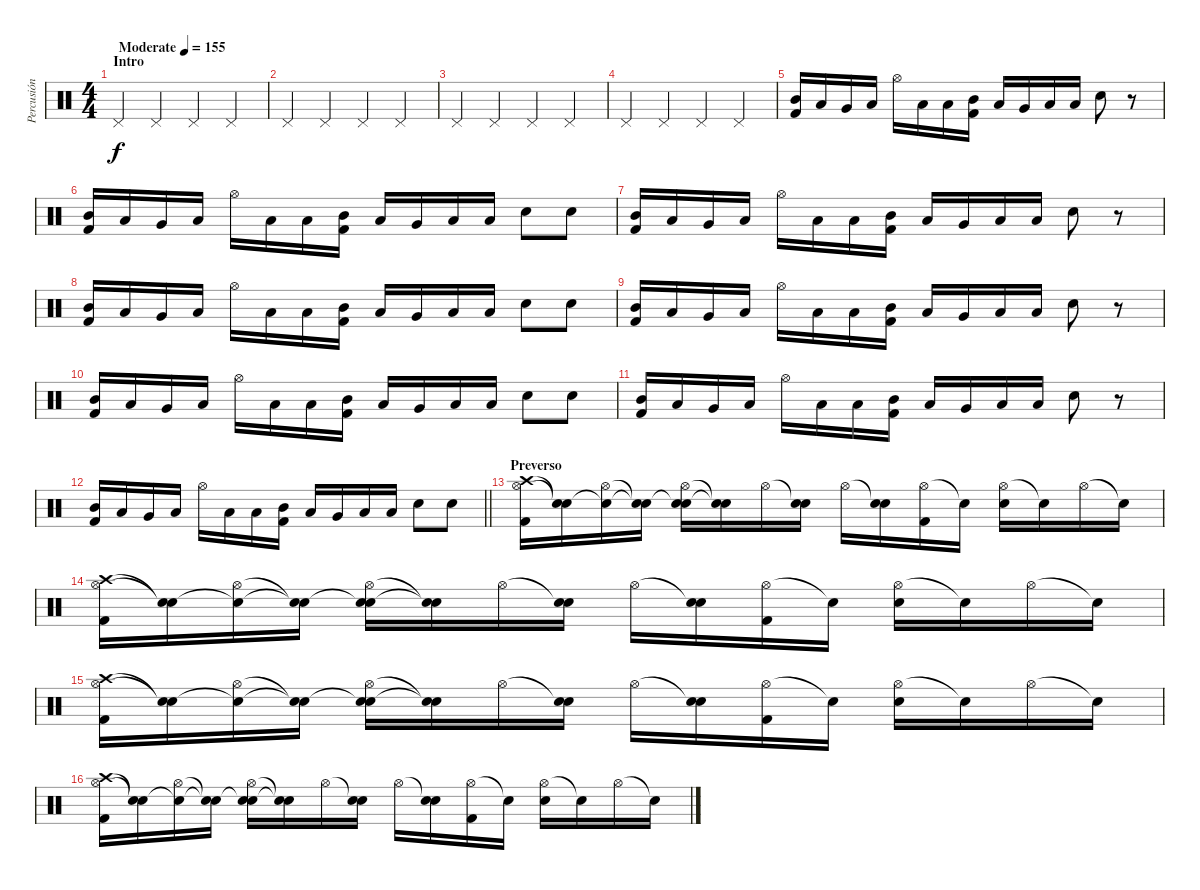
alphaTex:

\track ("Percusión (Erik)" "Percusión ") {instrument percussion}
\staff {score}
\articulation defaults
\ts (4 4)
\section ("" "Intro")
\tempo (155 "Moderate")
\clef neutral
\ks c "Pedal Hi-Hat (hit)".4{dy f} "Pedal Hi-Hat (hit)".4 "Pedal Hi-Hat (hit)".4 "Pedal Hi-Hat (hit)".4
|
"Pedal Hi-Hat (hit)".4 "Pedal Hi-Hat (hit)".4 "Pedal Hi-Hat (hit)".4 "Pedal Hi-Hat (hit)".4 |
"Pedal Hi-Hat (hit)".4 "Pedal Hi-Hat (hit)".4 "Pedal Hi-Hat (hit)".4 "Pedal Hi-Hat (hit)".4 |
"Pedal Hi-Hat (hit)".4 "Pedal Hi-Hat (hit)".4 "Pedal Hi-Hat (hit)".4 "Pedal Hi-Hat (hit)".4 |
("Mid Tom (hit)" "Kick (hit) 2").16 "Low Tom (hit)".16 "Very Low Tom (hit)".16 "Low Floor Tom (hit)".16 "Hi-Hat (open)".16 "Low Floor Tom (hit)".16 "Low Floor Tom (hit)".16 ("Mid Tom (hit)" "Kick (hit) 2").16 "Low Tom (hit)".16 "Very Low Tom (hit)".16 "Low Floor Tom (hit)".16 "Low Floor Tom (hit)".16 "Snare (hit) 2".8 r.8 |
("Mid Tom (hit)" "Kick (hit) 2").16 "Low Tom (hit)".16 "Very Low Tom (hit)".16 "Low Floor Tom (hit)".16 "Hi-Hat (open)".16 "Low Floor Tom (hit)".16 "Low Floor Tom (hit)".16 ("Mid Tom (hit)" "Kick (hit) 2").16 "Low Tom (hit)".16 "Very Low Tom (hit)".16 "Low Floor Tom (hit)".16 "Low Floor Tom (hit)".16 "Snare (hit) 2".8 "Snare (hit) 2".8 |
("Mid Tom (hit)" "Kick (hit) 2").16 "Low Tom (hit)".16 "Very Low Tom (hit)".16 "Low Floor Tom (hit)".16 "Hi-Hat (open)".16 "Low Floor Tom (hit)".16 "Low Floor Tom (hit)".16 ("Mid Tom (hit)" "Kick (hit) 2").16 "Low Tom (hit)".16 "Very Low Tom (hit)".16 "Low Floor Tom (hit)".16 "Low Floor Tom (hit)".16 "Snare (hit) 2".8 r.8 |
("Mid Tom (hit)" "Kick (hit) 2").16 "Low Tom (hit)".16 "Very Low Tom (hit)".16 "Low Floor Tom (hit)".16 "Hi-Hat (open)".16 "Low Floor Tom (hit)".16 "Low Floor Tom (hit)".16 ("Mid Tom (hit)" "Kick (hit) 2").16 "Low Tom (hit)".16 "Very Low Tom (hit)".16 "Low Floor Tom (hit)".16 "Low Floor Tom (hit)".16 "Snare (hit) 2".8 "Snare (hit) 2".8 |
("Mid Tom (hit)" "Kick (hit) 2").16 "Low Tom (hit)".16 "Very Low Tom (hit)".16 "Low Floor Tom (hit)".16 "Hi-Hat (open)".16 "Low Floor Tom (hit)".16 "Low Floor Tom (hit)".16 ("Mid Tom (hit)" "Kick (hit) 2").16 "Low Tom (hit)".16 "Very Low Tom (hit)".16 "Low Floor Tom (hit)".16 "Low Floor Tom (hit)".16 "Snare (hit) 2".8 r.8 |
("Mid Tom (hit)" "Kick (hit) 2").16 "Low Tom (hit)".16 "Very Low Tom (hit)".16 "Low Floor Tom (hit)".16 "Hi-Hat (open)".16 "Low Floor Tom (hit)".16 "Low Floor Tom (hit)".16 ("Mid Tom (hit)" "Kick (hit) 2").16 "Low Tom (hit)".16 "Very Low Tom (hit)".16 "Low Floor Tom (hit)".16 "Low Floor Tom (hit)".16 "Snare (hit) 2".8 "Snare (hit) 2".8 |
("Mid Tom (hit)" "Kick (hit) 2").16 "Low Tom (hit)".16 "Very Low Tom (hit)".16 "Low Floor Tom (hit)".16 "Hi-Hat (open)".16 "Low Floor Tom (hit)".16 "Low Floor Tom (hit)".16 ("Mid Tom (hit)" "Kick (hit) 2").16 "Low Tom (hit)".16 "Very Low Tom (hit)".16 "Low Floor Tom (hit)".16 "Low Floor Tom (hit)".16 "Snare (hit) 2".8 r.8 |
\barLineRight lightlight
("Mid Tom (hit)" "Kick (hit) 2").16 "Low Tom (hit)".16 "Very Low Tom (hit)".16 "Low Floor Tom (hit)".16 "Hi-Hat (open)".16 "Low Floor Tom (hit)".16 "Low Floor Tom (hit)".16 ("Mid Tom (hit)" "Kick (hit) 2").16 "Low Tom (hit)".16 "Very Low Tom (hit)".16 "Low Floor Tom (hit)".16 "Low Floor Tom (hit)".16 "Snare (hit) 2".8 "Snare (hit) 2".8 |
\section ("" "Preverso")
("Crash high (hit)" "Hi-Hat (open)" "Kick (hit) 2").16{volume 14} ("Snare (hit)"{t} "Snare (hit)"{t}).16 ("Snare (hit)"{t} "Hi-Hat (open)").16 ("Snare (hit)"{t} "Snare (hit)"{t}).16 ("Snare (hit)"{t} "Hi-Hat (open)" "Electric Snare (hit)").16 ("Snare (hit)"{t} "Snare (hit)"{t}).16 "Hi-Hat (open)".16 ("Snare (hit)"{t} "Electric Snare (hit)").16 "Hi-Hat (open)".16 ("Snare (hit)"{t} "Electric Snare (hit)").16 ("Hi-Hat (open)" "Kick (hit) 2").16 "Snare (hit)"{t}.16 ("Hi-Hat (open)" "Electric Snare (hit)").16 "Snare (hit)"{t}.16 "Hi-Hat (open)".16 "Snare (hit)"{t}.16 |
("Crash high (hit)" "Hi-Hat (open)" "Kick (hit) 2").16{volume 14} ("Snare (hit)"{t} "Snare (hit)"{t}).16 ("Snare (hit)"{t} "Hi-Hat (open)").16 ("Snare (hit)"{t} "Snare (hit)"{t}).16 ("Snare (hit)"{t} "Hi-Hat (open)" "Electric Snare (hit)").16 ("Snare (hit)"{t} "Snare (hit)"{t}).16 "Hi-Hat (open)".16 ("Snare (hit)"{t} "Electric Snare (hit)").16 "Hi-Hat (open)".16 ("Snare (hit)"{t} "Electric Snare (hit)").16 ("Hi-Hat (open)" "Kick (hit) 2").16 "Snare (hit)"{t}.16 ("Hi-Hat (open)" "Electric Snare (hit)").16 "Snare (hit)"{t}.16 "Hi-Hat (open)".16 "Snare (hit)"{t}.16 |
("Crash high (hit)" "Hi-Hat (open)" "Kick (hit) 2").16{volume 14} ("Snare (hit)"{t} "Snare (hit)"{t}).16 ("Snare (hit)"{t} "Hi-Hat (open)").16 ("Snare (hit)"{t} "Snare (hit)"{t}).16 ("Snare (hit)"{t} "Hi-Hat (open)" "Electric Snare (hit)").16 ("Snare (hit)"{t} "Snare (hit)"{t}).16 "Hi-Hat (open)".16 ("Snare (hit)"{t} "Electric Snare (hit)").16 "Hi-Hat (open)".16 ("Snare (hit)"{t} "Electric Snare (hit)").16 ("Hi-Hat (open)" "Kick (hit) 2").16 "Snare (hit)"{t}.16 ("Hi-Hat (open)" "Electric Snare (hit)").16 "Snare (hit)"{t}.16 "Hi-Hat (open)".16 "Snare (hit)"{t}.16 |
("Crash high (hit)" "Hi-Hat (open)" "Kick (hit) 2").16{volume 14} ("Snare (hit)"{t} "Snare (hit)"{t}).16 ("Snare (hit)"{t} "Hi-Hat (open)").16 ("Snare (hit)"{t} "Snare (hit)"{t}).16 ("Snare (hit)"{t} "Hi-Hat (open)" "Electric Snare (hit)").16 ("Snare (hit)"{t} "Snare (hit)"{t}).16 "Hi-Hat (open)".16 ("Snare (hit)"{t} "Electric Snare (hit)").16 "Hi-Hat (open)".16 ("Snare (hit)"{t} "Electric Snare (hit)").16 ("Hi-Hat (open)" "Kick (hit) 2").16 "Snare (hit)"{t}.16 ("Hi-Hat (open)" "Electric Snare (hit)").16 "Snare (hit)"{t}.16 "Hi-Hat (open)".16 "Snare (hit)"{t}.16
